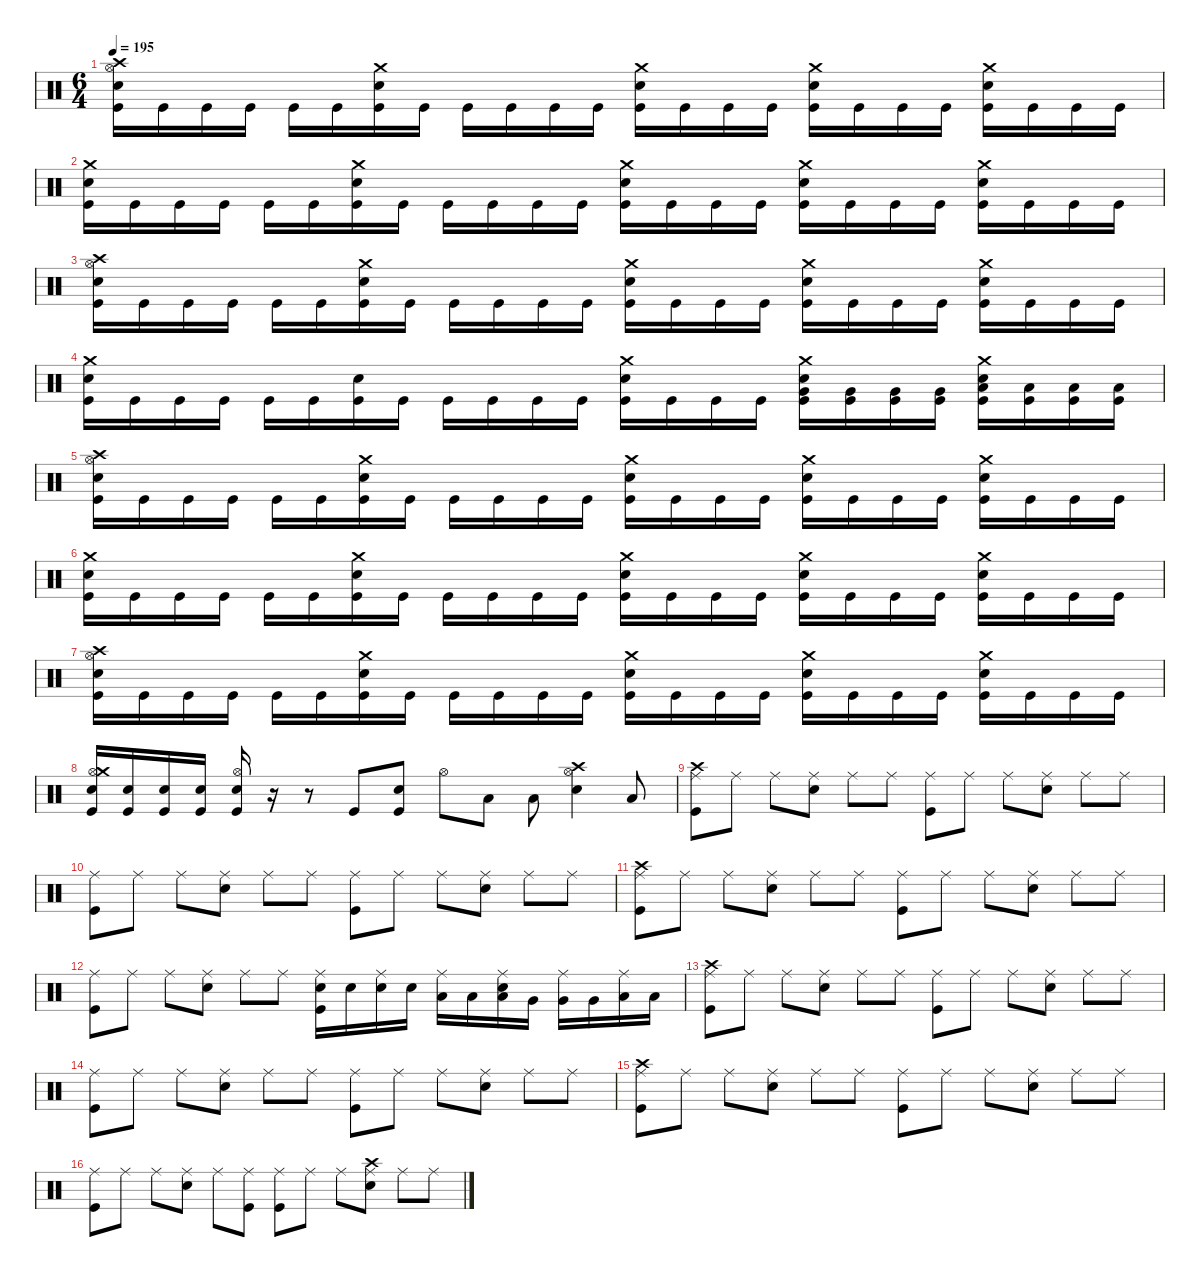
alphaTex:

\defaultSystemsLayout 4
\hideDynamics
\bracketExtendMode nobrackets
\singleTrackTrackNamePolicy hidden
\multiTrackTrackNamePolicy hidden
\firstSystemTrackNameMode fullname
\firstSystemTrackNameOrientation horizontal
\otherSystemsTrackNameOrientation horizontal
\track ("Percussion" "drm.") {instrument percussion}
\staff {score}
\articulation defaults
\ts (6 4)
\tempo 195
\clef neutral
\ks c
("Crash high (hit)" "Hi-Hat (open)" "Snare (hit) 2" "Kick (hit)").16{dy f beam Down} "Kick (hit)".16{beam Down} "Kick (hit)".16{beam Down} "Kick (hit)".16{beam Down} "Kick (hit)".16{beam Down} "Kick (hit)".16{beam Down} ("Crash medium (hit)" "Snare (hit) 2" "Kick (hit)").16{beam Down} "Kick (hit)".16{beam Down} "Kick (hit)".16{beam Down} "Kick (hit)".16{beam Down} "Kick (hit)".16{beam Down} "Kick (hit)".16{beam Down} ("Crash medium (hit)" "Snare (hit) 2" "Kick (hit)").16{beam Down} "Kick (hit)".16{beam Down} "Kick (hit)".16{beam Down} "Kick (hit)".16{beam Down} ("Crash medium (hit)" "Snare (hit) 2" "Kick (hit)").16{beam Down} "Kick (hit)".16{beam Down} "Kick (hit)".16{beam Down} "Kick (hit)".16{beam Down} ("Crash medium (hit)" "Snare (hit) 2" "Kick (hit)").16{beam Down} "Kick (hit)".16{beam Down} "Kick (hit)".16{beam Down} "Kick (hit)".16{beam Down} |
("Crash medium (hit)" "Snare (hit) 2" "Kick (hit)").16{beam Down} "Kick (hit)".16{beam Down} "Kick (hit)".16{beam Down} "Kick (hit)".16{beam Down} "Kick (hit)".16{beam Down} "Kick (hit)".16{beam Down} ("Crash medium (hit)" "Snare (hit) 2" "Kick (hit)").16{beam Down} "Kick (hit)".16{beam Down} "Kick (hit)".16{beam Down} "Kick (hit)".16{beam Down} "Kick (hit)".16{beam Down} "Kick (hit)".16{beam Down} ("Crash medium (hit)" "Snare (hit) 2" "Kick (hit)").16{beam Down} "Kick (hit)".16{beam Down} "Kick (hit)".16{beam Down} "Kick (hit)".16{beam Down} ("Crash medium (hit)" "Snare (hit) 2" "Kick (hit)").16{beam Down} "Kick (hit)".16{beam Down} "Kick (hit)".16{beam Down} "Kick (hit)".16{beam Down} ("Crash medium (hit)" "Snare (hit) 2" "Kick (hit)").16{beam Down} "Kick (hit)".16{beam Down} "Kick (hit)".16{beam Down} "Kick (hit)".16{beam Down} |
("Crash high (hit)" "Hi-Hat (open)" "Snare (hit) 2" "Kick (hit)").16{beam Down} "Kick (hit)".16{beam Down} "Kick (hit)".16{beam Down} "Kick (hit)".16{beam Down} "Kick (hit)".16{beam Down} "Kick (hit)".16{beam Down} ("Crash medium (hit)" "Snare (hit) 2" "Kick (hit)").16{beam Down} "Kick (hit)".16{beam Down} "Kick (hit)".16{beam Down} "Kick (hit)".16{beam Down} "Kick (hit)".16{beam Down} "Kick (hit)".16{beam Down} ("Crash medium (hit)" "Snare (hit) 2" "Kick (hit)").16{beam Down} "Kick (hit)".16{beam Down} "Kick (hit)".16{beam Down} "Kick (hit)".16{beam Down} ("Crash medium (hit)" "Snare (hit) 2" "Kick (hit)").16{beam Down} "Kick (hit)".16{beam Down} "Kick (hit)".16{beam Down} "Kick (hit)".16{beam Down} ("Crash medium (hit)" "Snare (hit) 2" "Kick (hit)").16{beam Down} "Kick (hit)".16{beam Down} "Kick (hit)".16{beam Down} "Kick (hit)".16{beam Down} |
("Crash medium (hit)" "Snare (hit) 2" "Kick (hit)").16{beam Down} "Kick (hit)".16{beam Down} "Kick (hit)".16{beam Down} "Kick (hit)".16{beam Down} "Kick (hit)".16{beam Down} "Kick (hit)".16{beam Down} ("Snare (hit) 2" "Kick (hit)").16{beam Down} "Kick (hit)".16{beam Down} "Kick (hit)".16{beam Down} "Kick (hit)".16{beam Down} "Kick (hit)".16{beam Down} "Kick (hit)".16{beam Down} ("Crash medium (hit)" "Snare (hit) 2" "Kick (hit)").16{beam Down} "Kick (hit)".16{beam Down} "Kick (hit)".16{beam Down} "Kick (hit)".16{beam Down} ("Very Low Tom (hit)" "Crash medium (hit)" "Snare (hit) 2" "Kick (hit)").16{beam Down} ("Very Low Tom (hit)" "Kick (hit)").16{beam Down} ("Very Low Tom (hit)" "Kick (hit)").16{beam Down} ("Very Low Tom (hit)" "Kick (hit)").16{beam Down} ("Low Floor Tom (hit)" "Crash medium (hit)" "Snare (hit) 2" "Kick (hit)").16{beam Down} ("Low Floor Tom (hit)" "Kick (hit)").16{beam Down} ("Low Floor Tom (hit)" "Kick (hit)").16{beam Down} ("Low Floor Tom (hit)" "Kick (hit)").16{beam Down} |
("Crash high (hit)" "Hi-Hat (open)" "Snare (hit) 2" "Kick (hit)").16{beam Down} "Kick (hit)".16{beam Down} "Kick (hit)".16{beam Down} "Kick (hit)".16{beam Down} "Kick (hit)".16{beam Down} "Kick (hit)".16{beam Down} ("Crash medium (hit)" "Snare (hit) 2" "Kick (hit)").16{beam Down} "Kick (hit)".16{beam Down} "Kick (hit)".16{beam Down} "Kick (hit)".16{beam Down} "Kick (hit)".16{beam Down} "Kick (hit)".16{beam Down} ("Crash medium (hit)" "Snare (hit) 2" "Kick (hit)").16{beam Down} "Kick (hit)".16{beam Down} "Kick (hit)".16{beam Down} "Kick (hit)".16{beam Down} ("Crash medium (hit)" "Snare (hit) 2" "Kick (hit)").16{beam Down} "Kick (hit)".16{beam Down} "Kick (hit)".16{beam Down} "Kick (hit)".16{beam Down} ("Crash medium (hit)" "Snare (hit) 2" "Kick (hit)").16{beam Down} "Kick (hit)".16{beam Down} "Kick (hit)".16{beam Down} "Kick (hit)".16{beam Down} |
("Crash medium (hit)" "Snare (hit) 2" "Kick (hit)").16{beam Down} "Kick (hit)".16{beam Down} "Kick (hit)".16{beam Down} "Kick (hit)".16{beam Down} "Kick (hit)".16{beam Down} "Kick (hit)".16{beam Down} ("Crash medium (hit)" "Snare (hit) 2" "Kick (hit)").16{beam Down} "Kick (hit)".16{beam Down} "Kick (hit)".16{beam Down} "Kick (hit)".16{beam Down} "Kick (hit)".16{beam Down} "Kick (hit)".16{beam Down} ("Crash medium (hit)" "Snare (hit) 2" "Kick (hit)").16{beam Down} "Kick (hit)".16{beam Down} "Kick (hit)".16{beam Down} "Kick (hit)".16{beam Down} ("Crash medium (hit)" "Snare (hit) 2" "Kick (hit)").16{beam Down} "Kick (hit)".16{beam Down} "Kick (hit)".16{beam Down} "Kick (hit)".16{beam Down} ("Crash medium (hit)" "Snare (hit) 2" "Kick (hit)").16{beam Down} "Kick (hit)".16{beam Down} "Kick (hit)".16{beam Down} "Kick (hit)".16{beam Down} |
("Crash high (hit)" "Hi-Hat (open)" "Snare (hit) 2" "Kick (hit)").16{beam Down} "Kick (hit)".16{beam Down} "Kick (hit)".16{beam Down} "Kick (hit)".16{beam Down} "Kick (hit)".16{beam Down} "Kick (hit)".16{beam Down} ("Crash medium (hit)" "Snare (hit) 2" "Kick (hit)").16{beam Down} "Kick (hit)".16{beam Down} "Kick (hit)".16{beam Down} "Kick (hit)".16{beam Down} "Kick (hit)".16{beam Down} "Kick (hit)".16{beam Down} ("Crash medium (hit)" "Snare (hit) 2" "Kick (hit)").16{beam Down} "Kick (hit)".16{beam Down} "Kick (hit)".16{beam Down} "Kick (hit)".16{beam Down} ("Crash medium (hit)" "Snare (hit) 2" "Kick (hit)").16{beam Down} "Kick (hit)".16{beam Down} "Kick (hit)".16{beam Down} "Kick (hit)".16{beam Down} ("Crash medium (hit)" "Snare (hit) 2" "Kick (hit)").16{beam Down} "Kick (hit)".16{beam Down} "Kick (hit)".16{beam Down} "Kick (hit)".16{beam Down} |
("Hi-Hat (open)" "Crash medium (hit)" "Snare (hit) 2" "Kick (hit)").16{beam Up} ("Snare (hit) 2" "Kick (hit)").16{beam Up} ("Snare (hit) 2" "Kick (hit)").16{beam Up} ("Snare (hit) 2" "Kick (hit)").16{beam Up} ("Hi-Hat (open)" "Snare (hit) 2" "Kick (hit)").16{beam Up} r.16{beam Up} r.8{beam Up} "Kick (hit)".8{beam Up} ("Snare (hit) 2" "Kick (hit)").8{beam Up} "Hi-Hat (open)".8{beam Down} "Low Floor Tom (hit)".8{beam Down} "Low Floor Tom (hit)".8{beam Down} ("Hi-Hat (open)" "Crash high (hit)" "Snare (hit) 2").4{beam Down} "Low Floor Tom (hit)".8{beam Up} |
("Ride (middle)" "Crash high (hit)" "Kick (hit)").8{beam Down} "Ride (middle)".8{beam Down} "Ride (middle)".8{beam Down} ("Ride (middle)" "Snare (hit) 2").8{beam Down} "Ride (middle)".8{beam Down} "Ride (middle)".8{beam Down} ("Ride (middle)" "Kick (hit)").8{beam Down} "Ride (middle)".8{beam Down} "Ride (middle)".8{beam Down} ("Ride (middle)" "Snare (hit) 2").8{beam Down} "Ride (middle)".8{beam Down} "Ride (middle)".8{beam Down} |
("Ride (middle)" "Kick (hit)").8{beam Down} "Ride (middle)".8{beam Down} "Ride (middle)".8{beam Down} ("Ride (middle)" "Snare (hit) 2").8{beam Down} "Ride (middle)".8{beam Down} "Ride (middle)".8{beam Down} ("Ride (middle)" "Kick (hit)").8{beam Down} "Ride (middle)".8{beam Down} "Ride (middle)".8{beam Down} ("Ride (middle)" "Snare (hit) 2").8{beam Down} "Ride (middle)".8{beam Down} "Ride (middle)".8{beam Down} |
("Ride (middle)" "Crash high (hit)" "Kick (hit)").8{beam Down} "Ride (middle)".8{beam Down} "Ride (middle)".8{beam Down} ("Ride (middle)" "Snare (hit) 2").8{beam Down} "Ride (middle)".8{beam Down} "Ride (middle)".8{beam Down} ("Ride (middle)" "Kick (hit)").8{beam Down} "Ride (middle)".8{beam Down} "Ride (middle)".8{beam Down} ("Ride (middle)" "Snare (hit) 2").8{beam Down} "Ride (middle)".8{beam Down} "Ride (middle)".8{beam Down} |
("Ride (middle)" "Kick (hit)").8{beam Down} "Ride (middle)".8{beam Down} "Ride (middle)".8{beam Down} ("Ride (middle)" "Snare (hit) 2").8{beam Down} "Ride (middle)".8{beam Down} "Ride (middle)".8{beam Down} ("Ride (middle)" "Snare (hit) 2" "Kick (hit)").16{beam Down} "Snare (hit) 2".16{beam Down} ("Ride (middle)" "Snare (hit) 2").16{beam Down} "Snare (hit) 2".16{beam Down} ("Ride (middle)" "Low Tom (hit)").16{beam Down} "Low Tom (hit)".16{beam Down} ("Ride (middle)" "Low Tom (hit)" "Snare (hit) 2").16{beam Down} "Very Low Tom (hit)".16{beam Down} ("Ride (middle)" "Very Low Tom (hit)").16{beam Down} "Very Low Tom (hit)".16{beam Down} ("Ride (middle)" "Low Floor Tom (hit)").16{beam Down} "Low Floor Tom (hit)".16{beam Down} |
("Ride (middle)" "Crash high (hit)" "Kick (hit)").8{beam Down} "Ride (middle)".8{beam Down} "Ride (middle)".8{beam Down} ("Ride (middle)" "Snare (hit) 2").8{beam Down} "Ride (middle)".8{beam Down} "Ride (middle)".8{beam Down} ("Ride (middle)" "Kick (hit)").8{beam Down} "Ride (middle)".8{beam Down} "Ride (middle)".8{beam Down} ("Ride (middle)" "Snare (hit) 2").8{beam Down} "Ride (middle)".8{beam Down} "Ride (middle)".8{beam Down} |
("Ride (middle)" "Kick (hit)").8{beam Down} "Ride (middle)".8{beam Down} "Ride (middle)".8{beam Down} ("Ride (middle)" "Snare (hit) 2").8{beam Down} "Ride (middle)".8{beam Down} "Ride (middle)".8{beam Down} ("Ride (middle)" "Kick (hit)").8{beam Down} "Ride (middle)".8{beam Down} "Ride (middle)".8{beam Down} ("Ride (middle)" "Snare (hit) 2").8{beam Down} "Ride (middle)".8{beam Down} "Ride (middle)".8{beam Down} |
("Ride (middle)" "Crash high (hit)" "Kick (hit)").8{beam Down} "Ride (middle)".8{beam Down} "Ride (middle)".8{beam Down} ("Ride (middle)" "Snare (hit) 2").8{beam Down} "Ride (middle)".8{beam Down} "Ride (middle)".8{beam Down} ("Ride (middle)" "Kick (hit)").8{beam Down} "Ride (middle)".8{beam Down} "Ride (middle)".8{beam Down} ("Ride (middle)" "Snare (hit) 2").8{beam Down} "Ride (middle)".8{beam Down} "Ride (middle)".8{beam Down} |
("Ride (middle)" "Kick (hit)").8{beam Down} "Ride (middle)".8{beam Down} "Ride (middle)".8{beam Down} ("Ride (middle)" "Snare (hit) 2").8{beam Down} "Ride (middle)".8{beam Down} ("Ride (middle)" "Kick (hit)").8{beam Down} ("Ride (middle)" "Kick (hit)").8{beam Down} "Ride (middle)".8{beam Down} "Ride (middle)".8{beam Down} ("Ride (middle)" "Crash high (hit)" "Snare (hit) 2").8{beam Down} "Ride (middle)".8{beam Down} "Ride (middle)".8{beam Down}
